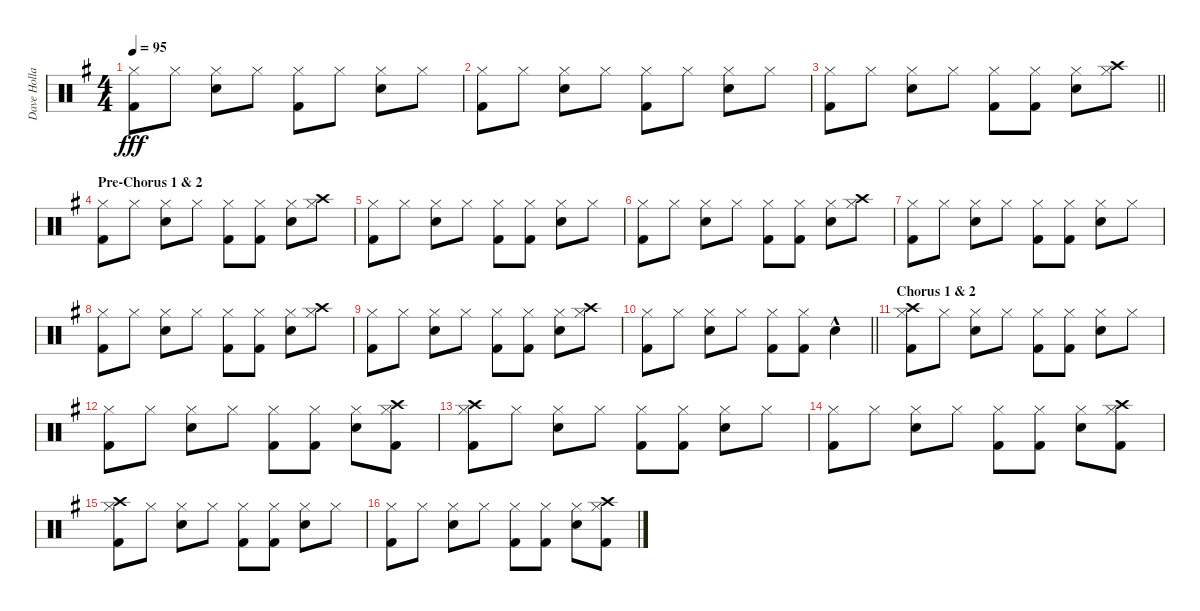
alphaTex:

\track ("Dave Holland" "Dave Holla") {instrument percussion}
\staff {score}
\articulation defaults
\ts (4 4)
\tempo 95
\clef neutral
\ks g
("Hi-Hat (closed)" "Kick (hit) 2").8{dy fff} "Hi-Hat (closed)".8 ("Hi-Hat (closed)" "Snare (hit) 2").8 "Hi-Hat (closed)".8 ("Hi-Hat (closed)" "Kick (hit) 2").8 "Hi-Hat (closed)".8 ("Hi-Hat (closed)" "Snare (hit) 2").8 "Hi-Hat (closed)".8 |
("Hi-Hat (closed)" "Kick (hit) 2").8 "Hi-Hat (closed)".8 ("Hi-Hat (closed)" "Snare (hit) 2").8 "Hi-Hat (closed)".8 ("Hi-Hat (closed)" "Kick (hit) 2").8 "Hi-Hat (closed)".8 ("Hi-Hat (closed)" "Snare (hit) 2").8 "Hi-Hat (closed)".8 |
\barLineRight lightlight
("Hi-Hat (closed)" "Kick (hit) 2").8 "Hi-Hat (closed)".8 ("Hi-Hat (closed)" "Snare (hit) 2").8 "Hi-Hat (closed)".8 ("Hi-Hat (closed)" "Kick (hit) 2").8 ("Hi-Hat (closed)" "Kick (hit) 2").8 ("Hi-Hat (closed)" "Snare (hit) 2").8 ("Crash high (hit)" "Hi-Hat (closed)").8 |
\section ("" "Pre-Chorus 1 & 2")
("Hi-Hat (closed)" "Kick (hit) 2").8 "Hi-Hat (closed)".8 ("Hi-Hat (closed)" "Snare (hit) 2").8 "Hi-Hat (closed)".8 ("Hi-Hat (closed)" "Kick (hit) 2").8 ("Hi-Hat (closed)" "Kick (hit) 2").8 ("Hi-Hat (closed)" "Snare (hit) 2").8 ("Crash high (hit)" "Hi-Hat (closed)").8 |
("Hi-Hat (closed)" "Kick (hit) 2").8 "Hi-Hat (closed)".8 ("Hi-Hat (closed)" "Snare (hit) 2").8 "Hi-Hat (closed)".8 ("Hi-Hat (closed)" "Kick (hit) 2").8 ("Hi-Hat (closed)" "Kick (hit) 2").8 ("Hi-Hat (closed)" "Snare (hit) 2").8 "Hi-Hat (closed)".8 |
("Hi-Hat (closed)" "Kick (hit) 2").8 "Hi-Hat (closed)".8 ("Hi-Hat (closed)" "Snare (hit) 2").8 "Hi-Hat (closed)".8 ("Hi-Hat (closed)" "Kick (hit) 2").8 ("Hi-Hat (closed)" "Kick (hit) 2").8 ("Hi-Hat (closed)" "Snare (hit) 2").8 ("Crash high (hit)" "Hi-Hat (closed)").8 |
("Hi-Hat (closed)" "Kick (hit) 2").8 "Hi-Hat (closed)".8 ("Hi-Hat (closed)" "Snare (hit) 2").8 "Hi-Hat (closed)".8 ("Hi-Hat (closed)" "Kick (hit) 2").8 ("Hi-Hat (closed)" "Kick (hit) 2").8 ("Hi-Hat (closed)" "Snare (hit) 2").8 "Hi-Hat (closed)".8 |
("Hi-Hat (closed)" "Kick (hit) 2").8 "Hi-Hat (closed)".8 ("Hi-Hat (closed)" "Snare (hit) 2").8 "Hi-Hat (closed)".8 ("Hi-Hat (closed)" "Kick (hit) 2").8 ("Hi-Hat (closed)" "Kick (hit) 2").8 ("Hi-Hat (closed)" "Snare (hit) 2").8 ("Crash high (hit)" "Hi-Hat (closed)").8 |
("Hi-Hat (closed)" "Kick (hit) 2").8 "Hi-Hat (closed)".8 ("Hi-Hat (closed)" "Snare (hit) 2").8 "Hi-Hat (closed)".8 ("Hi-Hat (closed)" "Kick (hit) 2").8 ("Hi-Hat (closed)" "Kick (hit) 2").8 ("Hi-Hat (closed)" "Snare (hit) 2").8 ("Crash high (hit)" "Hi-Hat (closed)").8 |
\barLineRight lightlight
("Hi-Hat (closed)" "Kick (hit) 2").8 "Hi-Hat (closed)".8 ("Hi-Hat (closed)" "Snare (hit) 2").8 "Hi-Hat (closed)".8 ("Hi-Hat (closed)" "Kick (hit) 2").8 ("Hi-Hat (closed)" "Kick (hit) 2").8 "Snare (hit) 2"{hac}.4{volume 16} |
\section ("" "Chorus 1 & 2")
("Crash high (hit)" "Hi-Hat (closed)" "Kick (hit) 2").8 "Hi-Hat (closed)".8 ("Hi-Hat (closed)" "Snare (hit) 2").8 "Hi-Hat (closed)".8 ("Hi-Hat (closed)" "Kick (hit) 2").8 ("Hi-Hat (closed)" "Kick (hit) 2").8 ("Hi-Hat (closed)" "Snare (hit) 2").8 "Hi-Hat (closed)".8 |
("Hi-Hat (closed)" "Kick (hit) 2").8 "Hi-Hat (closed)".8 ("Hi-Hat (closed)" "Snare (hit) 2").8 "Hi-Hat (closed)".8 ("Hi-Hat (closed)" "Kick (hit) 2").8 ("Hi-Hat (closed)" "Kick (hit) 2").8 ("Hi-Hat (closed)" "Snare (hit) 2").8 ("Crash high (hit)" "Hi-Hat (closed)" "Kick (hit) 2").8 |
("Crash high (hit)" "Hi-Hat (closed)" "Kick (hit) 2").8 "Hi-Hat (closed)".8 ("Hi-Hat (closed)" "Snare (hit) 2").8 "Hi-Hat (closed)".8 ("Hi-Hat (closed)" "Kick (hit) 2").8 ("Hi-Hat (closed)" "Kick (hit) 2").8 ("Hi-Hat (closed)" "Snare (hit) 2").8 "Hi-Hat (closed)".8 |
("Hi-Hat (closed)" "Kick (hit) 2").8 "Hi-Hat (closed)".8 ("Hi-Hat (closed)" "Snare (hit) 2").8 "Hi-Hat (closed)".8 ("Hi-Hat (closed)" "Kick (hit) 2").8 ("Hi-Hat (closed)" "Kick (hit) 2").8 ("Hi-Hat (closed)" "Snare (hit) 2").8 ("Crash high (hit)" "Hi-Hat (closed)" "Kick (hit) 2").8 |
("Crash high (hit)" "Hi-Hat (closed)" "Kick (hit) 2").8 "Hi-Hat (closed)".8 ("Hi-Hat (closed)" "Snare (hit) 2").8 "Hi-Hat (closed)".8 ("Hi-Hat (closed)" "Kick (hit) 2").8 ("Hi-Hat (closed)" "Kick (hit) 2").8 ("Hi-Hat (closed)" "Snare (hit) 2").8 "Hi-Hat (closed)".8 |
("Hi-Hat (closed)" "Kick (hit) 2").8 "Hi-Hat (closed)".8 ("Hi-Hat (closed)" "Snare (hit) 2").8 "Hi-Hat (closed)".8 ("Hi-Hat (closed)" "Kick (hit) 2").8 ("Hi-Hat (closed)" "Kick (hit) 2").8 ("Hi-Hat (closed)" "Snare (hit) 2").8 ("Crash high (hit)" "Hi-Hat (closed)" "Kick (hit) 2").8
